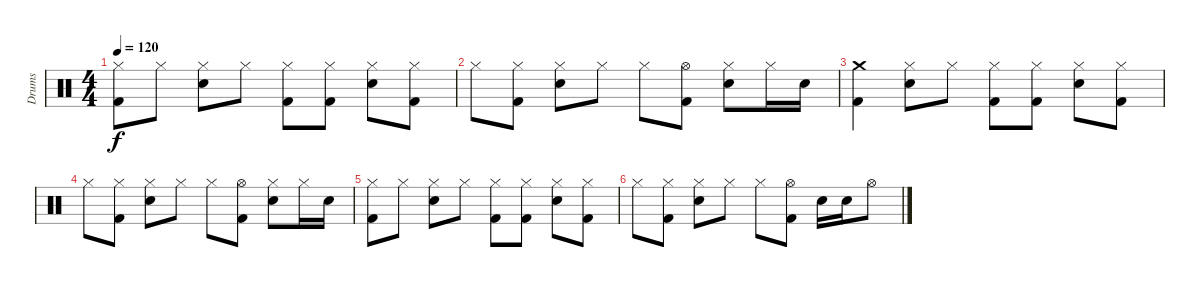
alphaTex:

\track ("Drums" "Drums") {instrument percussion}
\staff {score}
\articulation defaults
\ts (4 4)
\tempo 120
\clef neutral
\ks c
("Hi-Hat (closed)" "Kick (hit) 2").8{dy f} "Hi-Hat (closed)".8 ("Hi-Hat (closed)" "Snare (hit) 2").8 "Hi-Hat (closed)".8 ("Hi-Hat (closed)" "Kick (hit) 2").8 ("Hi-Hat (closed)" "Kick (hit) 2").8 ("Hi-Hat (closed)" "Snare (hit) 2").8 ("Hi-Hat (closed)" "Kick (hit) 2").8 |
"Hi-Hat (closed)".8 ("Hi-Hat (closed)" "Kick (hit) 2").8 ("Hi-Hat (closed)" "Snare (hit) 2").8 "Hi-Hat (closed)".8 "Hi-Hat (closed)".8 ("Hi-Hat (open)" "Kick (hit) 2").8 ("Hi-Hat (closed)" "Snare (hit) 2").8 "Hi-Hat (closed)".16 "Snare (hit) 2".16 |
("Crash medium (hit)" "Kick (hit) 2").4 ("Hi-Hat (closed)" "Snare (hit) 2").8 "Hi-Hat (closed)".8 ("Hi-Hat (closed)" "Kick (hit) 2").8 ("Hi-Hat (closed)" "Kick (hit) 2").8 ("Hi-Hat (closed)" "Snare (hit) 2").8 ("Hi-Hat (closed)" "Kick (hit) 2").8 |
"Hi-Hat (closed)".8 ("Hi-Hat (closed)" "Kick (hit) 2").8 ("Hi-Hat (closed)" "Snare (hit) 2").8 "Hi-Hat (closed)".8 "Hi-Hat (closed)".8 ("Hi-Hat (open)" "Kick (hit) 2").8 ("Hi-Hat (closed)" "Snare (hit) 2").8 "Hi-Hat (closed)".16 "Snare (hit) 2".16 |
("Hi-Hat (closed)" "Kick (hit) 2").8 "Hi-Hat (closed)".8 ("Hi-Hat (closed)" "Snare (hit) 2").8 "Hi-Hat (closed)".8 ("Hi-Hat (closed)" "Kick (hit) 2").8 ("Hi-Hat (closed)" "Kick (hit) 2").8 ("Hi-Hat (closed)" "Snare (hit) 2").8 ("Hi-Hat (closed)" "Kick (hit) 2").8 |
"Hi-Hat (closed)".8 ("Hi-Hat (closed)" "Kick (hit) 2").8 ("Hi-Hat (closed)" "Snare (hit) 2").8 "Hi-Hat (closed)".8 "Hi-Hat (closed)".8 ("Hi-Hat (open)" "Kick (hit) 2").8 "Snare (hit) 2".16 "Snare (hit) 2".16 "Hi-Hat (open)".8
